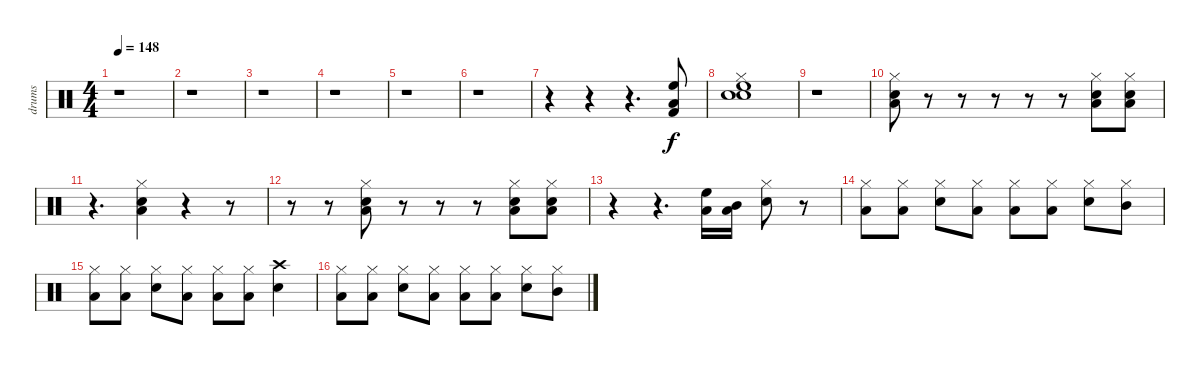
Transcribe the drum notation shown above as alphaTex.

\track ("drums" "drums") {instrument percussion}
\staff {score}
\articulation defaults
\ts (4 4)
\tempo 148
\clef neutral
\ks c
r.1{dy f} |
r.1 |
r.1 |
r.1 |
r.1 |
r.1 |
r.4 r.4 r.4{d} ("Kick (hit) 2" "High Floor Tom (hit)" "Low Tom (hit)").8 |
("Snare (hit) 2" "Hi-Hat (closed)" "High Floor Tom (hit)" "Snare (hit) 2").1 |
r.1 |
("Hi-Hat (closed)" "Low Tom (hit)" "Snare (hit) 2").8 r.8 r.8 r.8 r.8 r.8 ("Hi-Hat (closed)" "Snare (hit) 2" "Low Tom (hit)").8 ("Hi-Hat (closed)" "Snare (hit) 2" "Low Tom (hit)").8 |
r.4{d} ("Hi-Hat (closed)" "Low Tom (hit)" "Snare (hit) 2").4 r.4 r.8 |
r.8 r.8 ("Hi-Hat (closed)" "Snare (hit) 2" "Low Tom (hit)").8 r.8 r.8 r.8 ("Low Tom (hit)" "Snare (hit) 2" "Hi-Hat (closed)").8 ("Snare (hit) 2" "Low Tom (hit)" "Hi-Hat (closed)").8 |
r.4 r.4{d} ("High Floor Tom (hit)" "Low Tom (hit)").16 ("Mid Tom (hit)" "Low Tom (hit)").16 ("Hi-Hat (closed)" "Snare (hit) 2").8 r.8 |
("Hi-Hat (closed)" "Low Tom (hit)").8 ("Hi-Hat (closed)" "Low Tom (hit)").8 ("Snare (hit) 2" "Hi-Hat (closed)").8 ("Hi-Hat (closed)" "Low Tom (hit)").8 ("Hi-Hat (closed)" "Low Tom (hit)").8 ("Hi-Hat (closed)" "Low Tom (hit)").8 ("Snare (hit) 2" "Hi-Hat (closed)").8 ("Mid Tom (hit)" "Hi-Hat (closed)").8 |
("Hi-Hat (closed)" "Low Tom (hit)").8 ("Hi-Hat (closed)" "Low Tom (hit)").8 ("Snare (hit) 2" "Hi-Hat (closed)").8 ("Hi-Hat (closed)" "Low Tom (hit)").8 ("Hi-Hat (closed)" "Low Tom (hit)").8 ("Hi-Hat (closed)" "Low Tom (hit)").8 ("Crash high (hit)" "Snare (hit) 2").4 |
("Hi-Hat (closed)" "Low Tom (hit)").8 ("Hi-Hat (closed)" "Low Tom (hit)").8 ("Snare (hit) 2" "Hi-Hat (closed)").8 ("Hi-Hat (closed)" "Low Tom (hit)").8 ("Hi-Hat (closed)" "Low Tom (hit)").8 ("Hi-Hat (closed)" "Low Tom (hit)").8 ("Snare (hit) 2" "Hi-Hat (closed)").8 ("Mid Tom (hit)" "Hi-Hat (closed)").8
